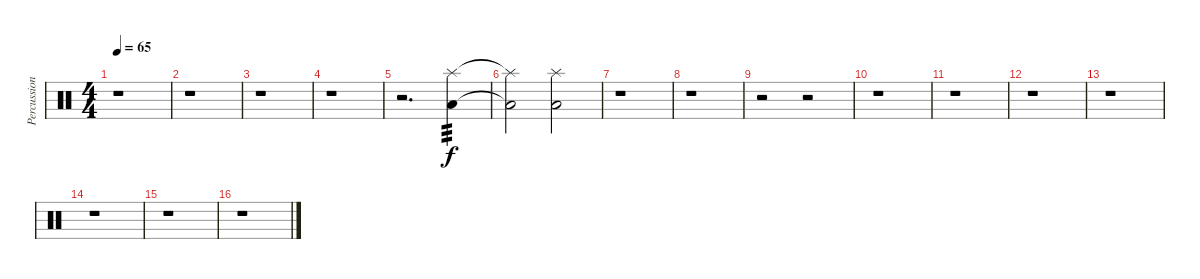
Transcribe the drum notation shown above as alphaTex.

\track ("Percussions" "Percussion") {instrument percussion}
\staff {score}
\articulation defaults
\ts (4 4)
\tempo 65
\clef neutral
\ks c
r.1{dy f} |
r.1 |
r.1 |
r.1 |
r.2{d volume 0} ("Splash (hit)" "Low Floor Tom (hit)").4{tp 3 volume 10} |
("Splash (hit)"{t} "Low Floor Tom (hit)"{t}).2 ("Splash (hit)" "Low Floor Tom (hit)").2 |
r.1 |
r.1 |
r.2 r.2 |
r.1 |
r.1 |
r.1 |
r.1 |
r.1 |
r.1 |
r.1
